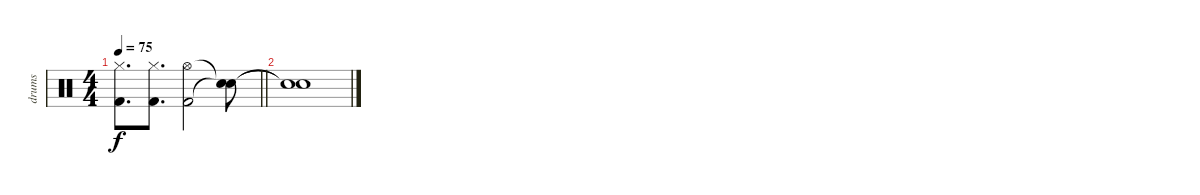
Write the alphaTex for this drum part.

\track ("drums" "drums") {instrument percussion}
\staff
\articulation defaults
\ts (4 4)
\tempo 75
\clef neutral
\barLineRight lightlight
\ks c
("Hi-Hat (closed)" "Kick (hit) 2").8{d dy f} ("Hi-Hat (closed)" "Kick (hit) 2").8{d} ("Hi-Hat (open)" "Kick (hit) 2").2 ("Snare (hit)"{t} "Snare (hit)"{t}).8 |
("Snare (hit)"{t} "Snare (hit)"{t}).1
